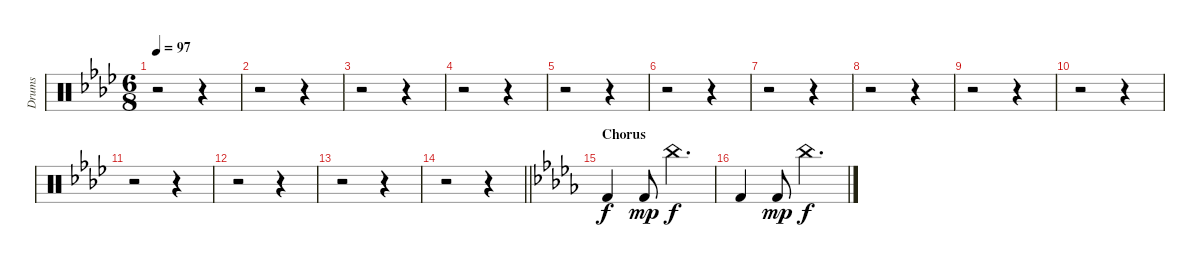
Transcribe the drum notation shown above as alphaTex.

\track ("Drums" "Drums") {instrument percussion}
\staff {score}
\articulation defaults
\ts (6 8)
\tempo 97
\clef neutral
\ks ab
r.2{dy f} r.4 |
r.2 r.4 |
r.2 r.4 |
r.2 r.4 |
r.2 r.4 |
r.2 r.4 |
r.2 r.4 |
r.2 r.4 |
r.2 r.4 |
r.2 r.4 |
r.2 r.4 |
r.2 r.4 |
r.2 r.4 |
\barLineRight lightlight
r.2 r.4 |
\section ("" "Chorus")
\ks db "Kick (hit) 2".4 "Kick (hit) 2".8{dy mp} "China (hit)".4{d dy f}
|
"Kick (hit) 2".4 "Kick (hit) 2".8{dy mp} "China (hit)".4{d dy f}
